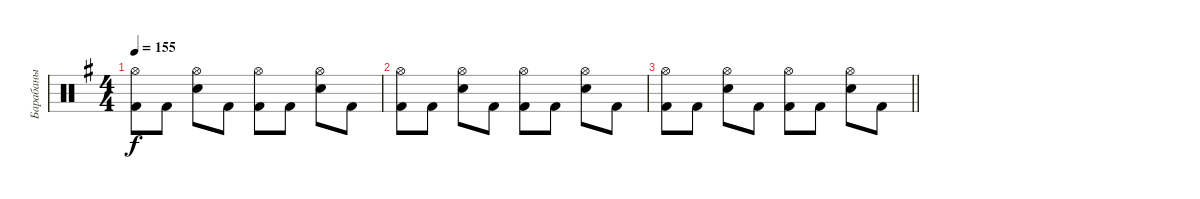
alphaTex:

\track ("Барабаны" "Барабаны") {instrument percussion}
\staff {score}
\articulation defaults
\ts (4 4)
\tempo 155
\clef neutral
\ks eminor
("Kick (hit) 2" "Hi-Hat (open)").8{dy f} "Kick (hit) 2".8 ("Electric Snare (hit)" "Hi-Hat (open)").8 "Kick (hit) 2".8 ("Kick (hit) 2" "Hi-Hat (open)").8 "Kick (hit) 2".8 ("Electric Snare (hit)" "Hi-Hat (open)").8 "Kick (hit) 2".8 |
("Kick (hit) 2" "Hi-Hat (open)").8 "Kick (hit) 2".8 ("Electric Snare (hit)" "Hi-Hat (open)").8 "Kick (hit) 2".8 ("Kick (hit) 2" "Hi-Hat (open)").8 "Kick (hit) 2".8 ("Electric Snare (hit)" "Hi-Hat (open)").8 "Kick (hit) 2".8 |
\barLineRight lightlight
("Kick (hit) 2" "Hi-Hat (open)").8 "Kick (hit) 2".8 ("Electric Snare (hit)" "Hi-Hat (open)").8 "Kick (hit) 2".8 ("Kick (hit) 2" "Hi-Hat (open)").8 "Kick (hit) 2".8 ("Electric Snare (hit)" "Hi-Hat (open)").8 "Kick (hit) 2".8
